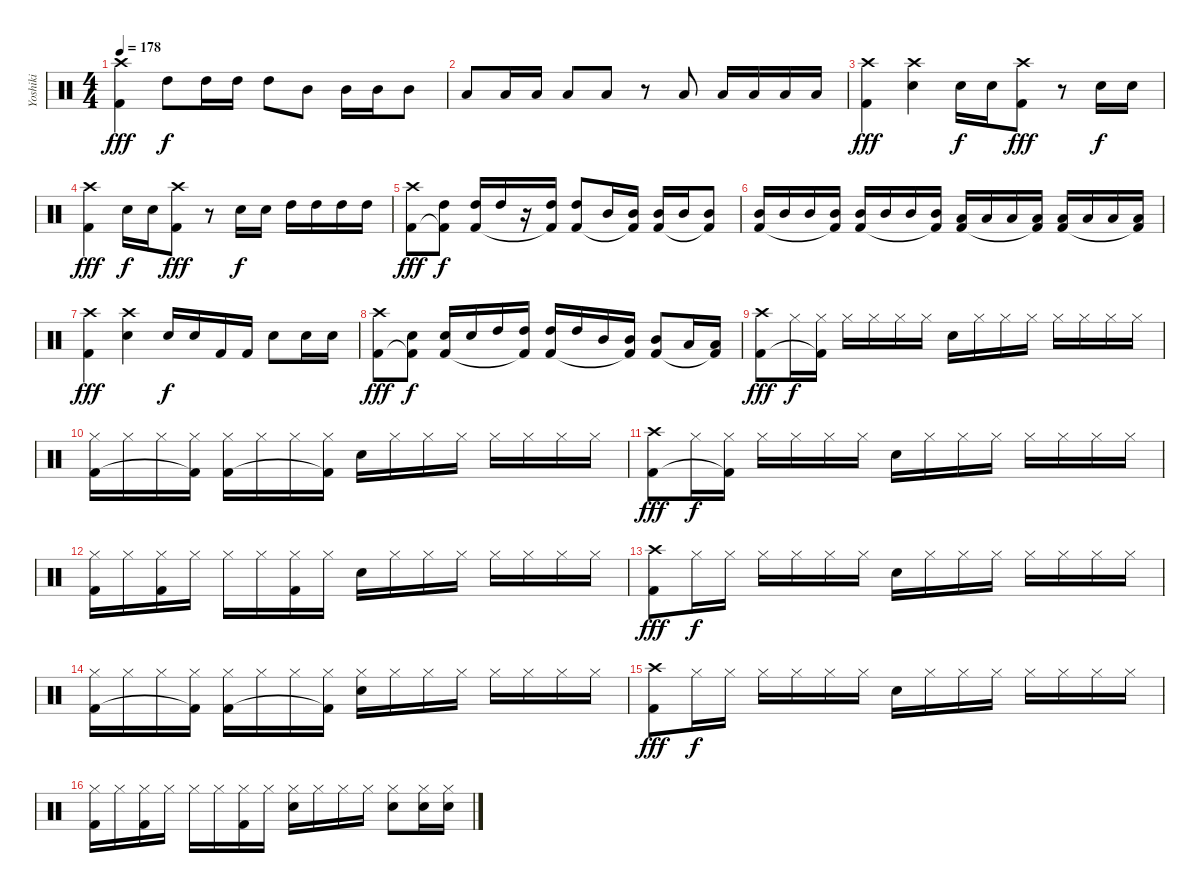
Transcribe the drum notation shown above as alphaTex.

\track ("Yoshiki" "Yoshiki") {instrument percussion}
\staff {score}
\articulation defaults
\ts (4 4)
\tempo 178
\clef neutral
\ks c
("Crash high (hit)" "Kick (hit) 2").4{dy fff} "High Tom (hit)".8{dy f} "High Tom (hit)".16 "High Tom (hit)".16 "High Tom (hit)".8 "Mid Tom (hit)".8 "Mid Tom (hit)".16 "Mid Tom (hit)".16 "Mid Tom (hit)".8 |
"Low Tom (hit)".8 "Low Tom (hit)".16 "Low Tom (hit)".16 "Low Tom (hit)".8 "Low Tom (hit)".8 r.8 "Low Tom (hit)".8 "Low Tom (hit)".16 "Low Tom (hit)".16 "Low Tom (hit)".16 "Low Tom (hit)".16 |
("Crash high (hit)" "Kick (hit) 2").4{dy fff} ("Crash high (hit)" "Snare (hit) 2").4 "Snare (hit) 2".16{dy f} "Snare (hit) 2".16 ("Crash high (hit)" "Kick (hit) 2").8{dy fff} r.8 "Snare (hit) 2".16{dy f} "Snare (hit) 2".16 |
("Crash high (hit)" "Kick (hit) 2").4{dy fff} "Snare (hit) 2".16{dy f} "Snare (hit) 2".16 ("Crash high (hit)" "Kick (hit) 2").8{dy fff} r.8 "Snare (hit) 2".16{dy f} "Snare (hit) 2".16 "High Tom (hit)".16 "High Tom (hit)".16 "High Tom (hit)".16 "High Tom (hit)".16 |
("Crash high (hit)" "Kick (hit) 2").8{dy fff} ("High Tom (hit)" "Kick (hit) 2"{t}).8{dy f} ("High Tom (hit)" "Kick (hit) 2").16 "High Tom (hit)".16 r.16 ("High Tom (hit)" "Kick (hit) 2"{t}).16 ("High Tom (hit)" "Kick (hit) 2").8 "Mid Tom (hit)".16 ("Mid Tom (hit)" "Kick (hit) 2"{t}).16 ("Mid Tom (hit)" "Kick (hit) 2").16 "Mid Tom (hit)".16 ("Mid Tom (hit)" "Kick (hit) 2"{t}).8 |
("Mid Tom (hit)" "Kick (hit) 2").16 "Mid Tom (hit)".16 "Mid Tom (hit)".16 ("Mid Tom (hit)" "Kick (hit) 2"{t}).16 ("Mid Tom (hit)" "Kick (hit) 2").16 "Mid Tom (hit)".16 "Mid Tom (hit)".16 ("Mid Tom (hit)" "Kick (hit) 2"{t}).16 ("Low Tom (hit)" "Kick (hit) 2").16 "Low Tom (hit)".16 "Low Tom (hit)".16 ("Low Tom (hit)" "Kick (hit) 2"{t}).16 ("Low Tom (hit)" "Kick (hit) 2").16 "Low Tom (hit)".16 "Low Tom (hit)".16 ("Low Tom (hit)" "Kick (hit) 2"{t}).16 |
("Crash high (hit)" "Kick (hit) 2").4{dy fff} ("Crash high (hit)" "Snare (hit) 2").4 "Snare (hit) 2".16{dy f} "Snare (hit) 2".16 "Kick (hit) 2".16 "Kick (hit) 2".16 "Snare (hit) 2".8 "Snare (hit) 2".16 "Snare (hit) 2".16 |
("Crash high (hit)" "Kick (hit) 2").8{dy fff} ("Snare (hit) 2" "Kick (hit) 2"{t}).8{dy f} ("Snare (hit) 2" "Kick (hit) 2").16 "Snare (hit) 2".16 "High Tom (hit)".16 ("High Tom (hit)" "Kick (hit) 2"{t}).16 ("High Tom (hit)" "Kick (hit) 2").16 "High Tom (hit)".16 "Mid Tom (hit)".16 ("Mid Tom (hit)" "Kick (hit) 2"{t}).16 ("Mid Tom (hit)" "Kick (hit) 2").8 "Low Tom (hit)".16 ("Low Tom (hit)" "Kick (hit) 2"{t}).16 |
("Crash high (hit)" "Kick (hit) 2").8{dy fff} "Hi-Hat (closed)".16{dy f} ("Hi-Hat (closed)" "Kick (hit) 2"{t}).16 "Hi-Hat (closed)".16 "Hi-Hat (closed)".16 "Hi-Hat (closed)".16 "Hi-Hat (closed)".16 "Snare (hit) 2".16 "Hi-Hat (closed)".16 "Hi-Hat (closed)".16 "Hi-Hat (closed)".16 "Hi-Hat (closed)".16 "Hi-Hat (closed)".16 "Hi-Hat (closed)".16 "Hi-Hat (closed)".16 |
("Hi-Hat (closed)" "Kick (hit) 2").16 "Hi-Hat (closed)".16 "Hi-Hat (closed)".16 ("Hi-Hat (closed)" "Kick (hit) 2"{t}).16 ("Hi-Hat (closed)" "Kick (hit) 2").16 "Hi-Hat (closed)".16 "Hi-Hat (closed)".16 ("Hi-Hat (closed)" "Kick (hit) 2"{t}).16 "Snare (hit) 2".16 "Hi-Hat (closed)".16 "Hi-Hat (closed)".16 "Hi-Hat (closed)".16 "Hi-Hat (closed)".16 "Hi-Hat (closed)".16 "Hi-Hat (closed)".16 "Hi-Hat (closed)".16 |
("Crash high (hit)" "Kick (hit) 2").8{dy fff} "Hi-Hat (closed)".16{dy f} ("Hi-Hat (closed)" "Kick (hit) 2"{t}).16 "Hi-Hat (closed)".16 "Hi-Hat (closed)".16 "Hi-Hat (closed)".16 "Hi-Hat (closed)".16 "Snare (hit) 2".16 "Hi-Hat (closed)".16 "Hi-Hat (closed)".16 "Hi-Hat (closed)".16 "Hi-Hat (closed)".16 "Hi-Hat (closed)".16 "Hi-Hat (closed)".16 "Hi-Hat (closed)".16 |
("Hi-Hat (closed)" "Kick (hit) 2").16 "Hi-Hat (closed)".16 ("Hi-Hat (closed)" "Kick (hit) 2").16 "Hi-Hat (closed)".16 "Hi-Hat (closed)".16 "Hi-Hat (closed)".16 ("Hi-Hat (closed)" "Kick (hit) 2").16 "Hi-Hat (closed)".16 "Snare (hit) 2".16 "Hi-Hat (closed)".16 "Hi-Hat (closed)".16 "Hi-Hat (closed)".16 "Hi-Hat (closed)".16 "Hi-Hat (closed)".16 "Hi-Hat (closed)".16 "Hi-Hat (closed)".16 |
("Crash high (hit)" "Kick (hit) 2").8{dy fff} "Hi-Hat (closed)".16{dy f} "Hi-Hat (closed)".16 "Hi-Hat (closed)".16 "Hi-Hat (closed)".16 "Hi-Hat (closed)".16 "Hi-Hat (closed)".16 "Snare (hit) 2".16 "Hi-Hat (closed)".16 "Hi-Hat (closed)".16 "Hi-Hat (closed)".16 "Hi-Hat (closed)".16 "Hi-Hat (closed)".16 "Hi-Hat (closed)".16 "Hi-Hat (closed)".16 |
("Hi-Hat (closed)" "Kick (hit) 2").16 "Hi-Hat (closed)".16 "Hi-Hat (closed)".16 ("Hi-Hat (closed)" "Kick (hit) 2"{t}).16 ("Hi-Hat (closed)" "Kick (hit) 2").16 "Hi-Hat (closed)".16 "Hi-Hat (closed)".16 ("Hi-Hat (closed)" "Kick (hit) 2"{t}).16 ("Hi-Hat (closed)" "Snare (hit) 2").16 "Hi-Hat (closed)".16 "Hi-Hat (closed)".16 "Hi-Hat (closed)".16 "Hi-Hat (closed)".16 "Hi-Hat (closed)".16 "Hi-Hat (closed)".16 "Hi-Hat (closed)".16 |
("Crash high (hit)" "Kick (hit) 2").8{dy fff} "Hi-Hat (closed)".16{dy f} "Hi-Hat (closed)".16 "Hi-Hat (closed)".16 "Hi-Hat (closed)".16 "Hi-Hat (closed)".16 "Hi-Hat (closed)".16 "Snare (hit) 2".16 "Hi-Hat (closed)".16 "Hi-Hat (closed)".16 "Hi-Hat (closed)".16 "Hi-Hat (closed)".16 "Hi-Hat (closed)".16 "Hi-Hat (closed)".16 "Hi-Hat (closed)".16 |
("Hi-Hat (closed)" "Kick (hit) 2").16 "Hi-Hat (closed)".16 ("Hi-Hat (closed)" "Kick (hit) 2").16 "Hi-Hat (closed)".16 "Hi-Hat (closed)".16 "Hi-Hat (closed)".16 ("Hi-Hat (closed)" "Kick (hit) 2").16 "Hi-Hat (closed)".16 ("Hi-Hat (closed)" "Snare (hit) 2").16 "Hi-Hat (closed)".16 "Hi-Hat (closed)".16 "Hi-Hat (closed)".16 ("Hi-Hat (closed)" "Snare (hit) 2").8 ("Hi-Hat (closed)" "Snare (hit) 2").16 ("Hi-Hat (closed)" "Snare (hit) 2").16
